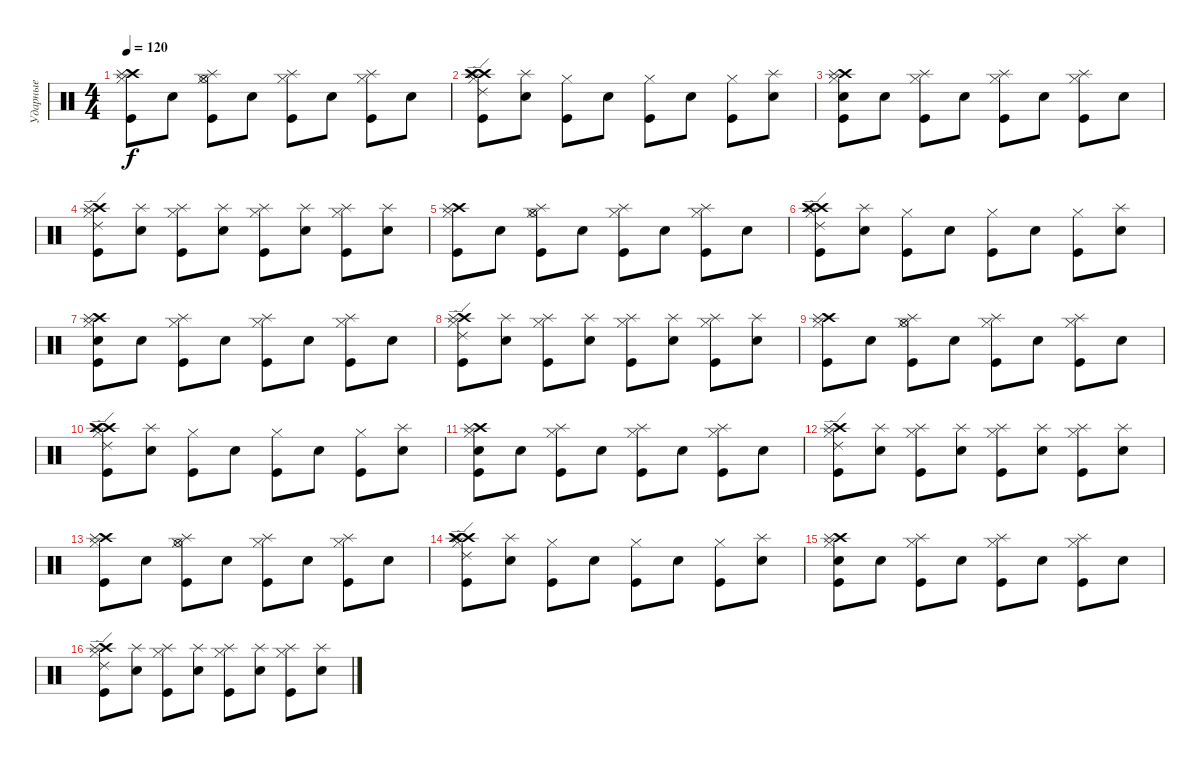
\track ("Ударные" "Ударные") {instrument percussion}
\staff {score}
\articulation defaults
\ts (4 4)
\tempo 120
\clef neutral
\ks c
("Crash high (hit)" "Hi-Hat (closed)" "Splash (hit)" "Kick (hit)").8{dy f} "Electric Snare (hit)".8 ("Hi-Hat (open)" "Hi-Hat (closed)" "Splash (hit)" "Kick (hit)").8 "Electric Snare (hit)".8 ("Hi-Hat (closed)" "Splash (hit)" "Kick (hit)").8 "Electric Snare (hit)".8 ("Hi-Hat (closed)" "Splash (hit)" "Kick (hit)").8 "Electric Snare (hit)".8 |
("Crash high (hit)" "Ride (edge) 2" "Hi-Hat (closed)" "Crash high (hit)" "Splash (hit)" "Kick (hit)").8 ("Electric Snare (hit)" "Splash (hit)").8 ("Hi-Hat (closed)" "Kick (hit)").8 "Electric Snare (hit)".8 ("Hi-Hat (closed)" "Kick (hit)").8 "Electric Snare (hit)".8 ("Hi-Hat (closed)" "Kick (hit)").8 ("Electric Snare (hit)" "Splash (hit)").8 |
("Crash high (hit)" "Hi-Hat (closed)" "Snare (hit)" "Splash (hit)" "Kick (hit)").8 "Electric Snare (hit)".8 ("Hi-Hat (closed)" "Splash (hit)" "Kick (hit)").8 "Electric Snare (hit)".8 ("Hi-Hat (closed)" "Splash (hit)" "Kick (hit)").8 "Electric Snare (hit)".8 ("Hi-Hat (closed)" "Splash (hit)" "Kick (hit)").8 "Electric Snare (hit)".8 |
("Crash high (hit)" "Ride (edge) 2" "Hi-Hat (closed)" "Splash (hit)" "Kick (hit)").8 ("Electric Snare (hit)" "Splash (hit)").8 ("Hi-Hat (closed)" "Splash (hit)" "Kick (hit)").8 ("Electric Snare (hit)" "Splash (hit)").8 ("Hi-Hat (closed)" "Splash (hit)" "Kick (hit)").8 ("Electric Snare (hit)" "Splash (hit)").8 ("Hi-Hat (closed)" "Splash (hit)" "Kick (hit)").8 ("Electric Snare (hit)" "Splash (hit)").8 |
("Crash high (hit)" "Hi-Hat (closed)" "Splash (hit)" "Kick (hit)").8 "Electric Snare (hit)".8 ("Hi-Hat (open)" "Hi-Hat (closed)" "Splash (hit)" "Kick (hit)").8 "Electric Snare (hit)".8 ("Hi-Hat (closed)" "Splash (hit)" "Kick (hit)").8 "Electric Snare (hit)".8 ("Hi-Hat (closed)" "Splash (hit)" "Kick (hit)").8 "Electric Snare (hit)".8 |
("Crash high (hit)" "Ride (edge) 2" "Hi-Hat (closed)" "Crash high (hit)" "Splash (hit)" "Kick (hit)").8 ("Electric Snare (hit)" "Splash (hit)").8 ("Hi-Hat (closed)" "Kick (hit)").8 "Electric Snare (hit)".8 ("Hi-Hat (closed)" "Kick (hit)").8 "Electric Snare (hit)".8 ("Hi-Hat (closed)" "Kick (hit)").8 ("Electric Snare (hit)" "Splash (hit)").8 |
("Crash high (hit)" "Hi-Hat (closed)" "Snare (hit)" "Splash (hit)" "Kick (hit)").8 "Electric Snare (hit)".8 ("Hi-Hat (closed)" "Splash (hit)" "Kick (hit)").8 "Electric Snare (hit)".8 ("Hi-Hat (closed)" "Splash (hit)" "Kick (hit)").8 "Electric Snare (hit)".8 ("Hi-Hat (closed)" "Splash (hit)" "Kick (hit)").8 "Electric Snare (hit)".8 |
("Crash high (hit)" "Ride (edge) 2" "Hi-Hat (closed)" "Splash (hit)" "Kick (hit)").8 ("Electric Snare (hit)" "Splash (hit)").8 ("Hi-Hat (closed)" "Splash (hit)" "Kick (hit)").8 ("Electric Snare (hit)" "Splash (hit)").8 ("Hi-Hat (closed)" "Splash (hit)" "Kick (hit)").8 ("Electric Snare (hit)" "Splash (hit)").8 ("Hi-Hat (closed)" "Splash (hit)" "Kick (hit)").8 ("Electric Snare (hit)" "Splash (hit)").8 |
("Crash high (hit)" "Hi-Hat (closed)" "Splash (hit)" "Kick (hit)").8 "Electric Snare (hit)".8 ("Hi-Hat (open)" "Hi-Hat (closed)" "Splash (hit)" "Kick (hit)").8 "Electric Snare (hit)".8 ("Hi-Hat (closed)" "Splash (hit)" "Kick (hit)").8 "Electric Snare (hit)".8 ("Hi-Hat (closed)" "Splash (hit)" "Kick (hit)").8 "Electric Snare (hit)".8 |
("Crash high (hit)" "Ride (edge) 2" "Hi-Hat (closed)" "Crash high (hit)" "Splash (hit)" "Kick (hit)").8 ("Electric Snare (hit)" "Splash (hit)").8 ("Hi-Hat (closed)" "Kick (hit)").8 "Electric Snare (hit)".8 ("Hi-Hat (closed)" "Kick (hit)").8 "Electric Snare (hit)".8 ("Hi-Hat (closed)" "Kick (hit)").8 ("Electric Snare (hit)" "Splash (hit)").8 |
("Crash high (hit)" "Hi-Hat (closed)" "Snare (hit)" "Splash (hit)" "Kick (hit)").8 "Electric Snare (hit)".8 ("Hi-Hat (closed)" "Splash (hit)" "Kick (hit)").8 "Electric Snare (hit)".8 ("Hi-Hat (closed)" "Splash (hit)" "Kick (hit)").8 "Electric Snare (hit)".8 ("Hi-Hat (closed)" "Splash (hit)" "Kick (hit)").8 "Electric Snare (hit)".8 |
("Crash high (hit)" "Ride (edge) 2" "Hi-Hat (closed)" "Splash (hit)" "Kick (hit)").8 ("Electric Snare (hit)" "Splash (hit)").8 ("Hi-Hat (closed)" "Splash (hit)" "Kick (hit)").8 ("Electric Snare (hit)" "Splash (hit)").8 ("Hi-Hat (closed)" "Splash (hit)" "Kick (hit)").8 ("Electric Snare (hit)" "Splash (hit)").8 ("Hi-Hat (closed)" "Splash (hit)" "Kick (hit)").8 ("Electric Snare (hit)" "Splash (hit)").8 |
("Crash high (hit)" "Hi-Hat (closed)" "Splash (hit)" "Kick (hit)").8 "Electric Snare (hit)".8 ("Hi-Hat (open)" "Hi-Hat (closed)" "Splash (hit)" "Kick (hit)").8 "Electric Snare (hit)".8 ("Hi-Hat (closed)" "Splash (hit)" "Kick (hit)").8 "Electric Snare (hit)".8 ("Hi-Hat (closed)" "Splash (hit)" "Kick (hit)").8 "Electric Snare (hit)".8 |
("Crash high (hit)" "Ride (edge) 2" "Hi-Hat (closed)" "Crash high (hit)" "Splash (hit)" "Kick (hit)").8 ("Electric Snare (hit)" "Splash (hit)").8 ("Hi-Hat (closed)" "Kick (hit)").8 "Electric Snare (hit)".8 ("Hi-Hat (closed)" "Kick (hit)").8 "Electric Snare (hit)".8 ("Hi-Hat (closed)" "Kick (hit)").8 ("Electric Snare (hit)" "Splash (hit)").8 |
("Crash high (hit)" "Hi-Hat (closed)" "Snare (hit)" "Splash (hit)" "Kick (hit)").8 "Electric Snare (hit)".8 ("Hi-Hat (closed)" "Splash (hit)" "Kick (hit)").8 "Electric Snare (hit)".8 ("Hi-Hat (closed)" "Splash (hit)" "Kick (hit)").8 "Electric Snare (hit)".8 ("Hi-Hat (closed)" "Splash (hit)" "Kick (hit)").8 "Electric Snare (hit)".8 |
("Crash high (hit)" "Ride (edge) 2" "Hi-Hat (closed)" "Splash (hit)" "Kick (hit)").8 ("Electric Snare (hit)" "Splash (hit)").8 ("Hi-Hat (closed)" "Splash (hit)" "Kick (hit)").8 ("Electric Snare (hit)" "Splash (hit)").8 ("Hi-Hat (closed)" "Splash (hit)" "Kick (hit)").8 ("Electric Snare (hit)" "Splash (hit)").8 ("Hi-Hat (closed)" "Splash (hit)" "Kick (hit)").8 ("Electric Snare (hit)" "Splash (hit)").8
